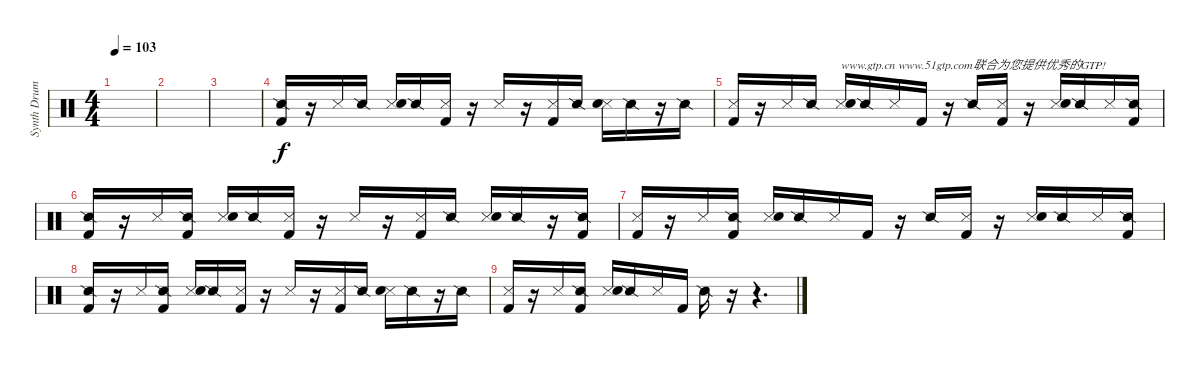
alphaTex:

\track ("Synth Drums" "Synth Drum") {instrument percussion}
\staff {score}
\articulation defaults
\ts (4 4)
\tempo 103
\clef neutral
\ks c
|
|
|
("Snare (side stick) 2" "Kick (hit) 2").16 r.16 "Metronome (hit)".16 "Snare (side stick) 2".16 ("Metronome (hit)" "Hand Clap (hit)").16 "Snare (side stick) 2".16 ("Metronome (hit)" "Kick (hit) 2").16 r.16 "Metronome (hit)".16 r.16 ("Metronome (hit)" "Kick (hit) 2").16 "Snare (side stick) 2".16 ("Metronome (hit)" "Hand Clap (hit)").16 "Snare (side stick) 2".16 r.16 "Snare (side stick) 2".16 |
("Metronome (hit)" "Kick (hit) 2").16 r.16 "Metronome (hit)".16 "Snare (side stick) 2".16 ("Metronome (hit)" "Hand Clap (hit)").16{txt "www.gtp.cn www.51gtp.com联合为您提供优秀的GTP!"} "Snare (side stick) 2".16 "Metronome (hit)".16 "Kick (hit) 2".16 r.16 "Snare (side stick) 2".16 ("Metronome (hit)" "Kick (hit) 2").16 r.16 ("Metronome (hit)" "Hand Clap (hit)").16 "Snare (side stick) 2".16 "Metronome (hit)".16 ("Snare (side stick) 2" "Kick (hit) 2").16 |
("Snare (side stick) 2" "Kick (hit) 2").16 r.16 "Metronome (hit)".16 ("Snare (side stick) 2" "Kick (hit) 2").16 ("Metronome (hit)" "Hand Clap (hit)").16 "Snare (side stick) 2".16 ("Metronome (hit)" "Kick (hit) 2").16 r.16 "Metronome (hit)".16 r.16 ("Metronome (hit)" "Kick (hit) 2").16 "Snare (side stick) 2".16 ("Metronome (hit)" "Hand Clap (hit)").16 "Snare (side stick) 2".16 r.16 ("Snare (side stick) 2" "Kick (hit) 2").16 |
("Metronome (hit)" "Kick (hit) 2").16 r.16 "Metronome (hit)".16 ("Snare (side stick) 2" "Kick (hit) 2").16 ("Metronome (hit)" "Hand Clap (hit)").16 "Snare (side stick) 2".16 "Metronome (hit)".16 "Kick (hit) 2".16 r.16 "Snare (side stick) 2".16 ("Metronome (hit)" "Kick (hit) 2").16 r.16 ("Metronome (hit)" "Hand Clap (hit)").16 "Snare (side stick) 2".16 "Metronome (hit)".16 ("Snare (side stick) 2" "Kick (hit) 2").16 |
("Snare (side stick) 2" "Kick (hit) 2").16 r.16 "Metronome (hit)".16 ("Snare (side stick) 2" "Kick (hit) 2").16 ("Metronome (hit)" "Hand Clap (hit)").16 "Snare (side stick) 2".16 ("Metronome (hit)" "Kick (hit) 2").16 r.16 "Metronome (hit)".16 r.16 ("Metronome (hit)" "Kick (hit) 2").16 "Snare (side stick) 2".16 ("Metronome (hit)" "Hand Clap (hit)").16 "Snare (side stick) 2".16 r.16 "Snare (side stick) 2".16 |
("Metronome (hit)" "Kick (hit) 2").16 r.16 "Metronome (hit)".16 ("Snare (side stick) 2" "Kick (hit) 2").16 ("Metronome (hit)" "Hand Clap (hit)").16 "Snare (side stick) 2".16 "Metronome (hit)".16 "Kick (hit) 2".16 "Snare (side stick) 2".16 r.16 r.4{d}
